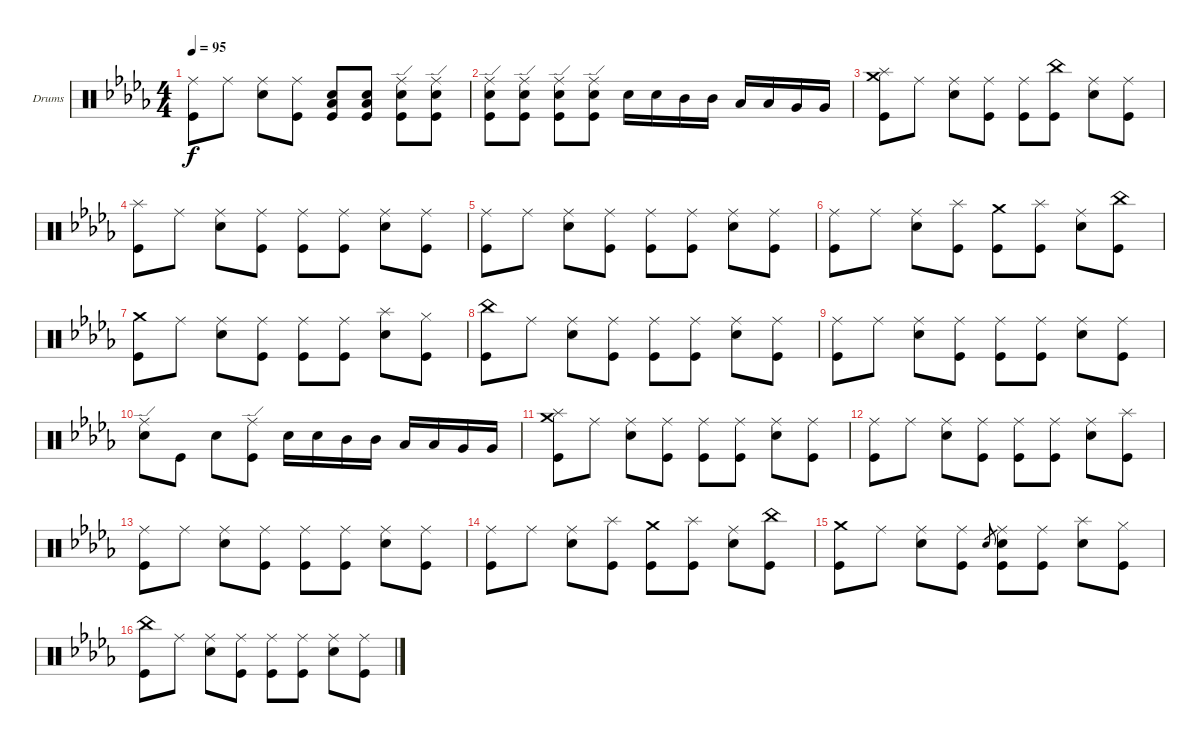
\bracketExtendMode groupsimilarinstruments
\firstSystemTrackNameOrientation horizontal
\otherSystemsTrackNameOrientation horizontal
\track ("Drumkit" "Drums") {instrument percussion}
\staff {score}
\articulation defaults
\ts (4 4)
\tempo 95
\clef neutral
\scale
0.333333
\ks bbminor
("Kick (hit)" "Ride (middle)").8{dy f} "Ride (middle)".8 ("Ride (middle)" "Snare (hit) 2").8 ("Ride (middle)" "Kick (hit)").8 ("Low Tom (hit)" "Kick (hit)" "Snare (hit) 2").8 ("Low Tom (hit)" "Kick (hit)" "Snare (hit) 2").8 ("Kick (hit)" "Ride (edge)" "Snare (hit) 2").8 ("Kick (hit)" "Ride (edge)" "Snare (hit) 2").8 |
\scale
0.333333 ("Kick (hit)" "Snare (hit) 2" "Ride (edge)").8 ("Kick (hit)" "Ride (edge)" "Snare (hit) 2").8 ("Kick (hit)" "Ride (edge)" "Snare (hit) 2").8 ("Kick (hit)" "Ride (edge)" "Snare (hit) 2").8 "Snare (hit) 2".16 "Snare (hit) 2".16 "Mid Tom (hit)".16 "Mid Tom (hit)".16 "Low Tom (hit)".16 "Low Tom (hit)".16 "Very Low Tom (hit)".16 "Very Low Tom (hit)".16 |
("Crash medium (hit)" "Kick (hit)" "Splash (hit)").8 "Ride (middle)".8 ("Ride (middle)" "Snare (hit) 2").8 ("Ride (middle)" "Kick (hit)").8 ("Ride (middle)" "Kick (hit)").8 ("Kick (hit)" "China (hit)").8 ("Ride (middle)" "Snare (hit) 2").8 ("Kick (hit)" "Ride (middle)").8 |
("Kick (hit)" "Splash (hit)").8 "Ride (middle)".8 ("Ride (middle)" "Snare (hit) 2").8 ("Ride (middle)" "Kick (hit)").8 ("Ride (middle)" "Kick (hit)").8 ("Ride (middle)" "Kick (hit)").8 ("Ride (middle)" "Snare (hit) 2").8 ("Kick (hit)" "Ride (middle)").8 |
("Kick (hit)" "Ride (middle)").8 "Ride (middle)".8 ("Ride (middle)" "Snare (hit) 2").8 ("Ride (middle)" "Kick (hit)").8 ("Ride (middle)" "Kick (hit)").8 ("Ride (middle)" "Kick (hit)").8 ("Ride (middle)" "Snare (hit) 2").8 ("Ride (middle)" "Kick (hit)").8 |
("Kick (hit)" "Ride (middle)").8 "Ride (middle)".8 ("Ride (middle)" "Snare (hit) 2").8 ("Kick (hit)" "Splash (hit)").8 ("Kick (hit)" "Crash medium (hit)").8 ("Kick (hit)" "Splash (hit)").8 ("Ride (middle)" "Snare (hit) 2").8 ("Kick (hit)" "China (hit)").8 |
("Crash medium (hit)" "Kick (hit)").8 "Ride (middle)".8 ("Ride (middle)" "Snare (hit) 2").8 ("Ride (middle)" "Kick (hit)").8 ("Ride (middle)" "Kick (hit)").8 ("Ride (middle)" "Kick (hit)").8 ("Snare (hit) 2" "Splash (hit)").8 ("Kick (hit)" "Hi-Hat (closed)").8 |
("Kick (hit)" "China (hit)").8 "Ride (middle)".8 ("Ride (middle)" "Snare (hit) 2").8 ("Ride (middle)" "Kick (hit)").8 ("Ride (middle)" "Kick (hit)").8 ("Ride (middle)" "Kick (hit)").8 ("Ride (middle)" "Snare (hit) 2").8 ("Ride (middle)" "Kick (hit)").8 |
("Kick (hit)" "Ride (middle)").8 "Ride (middle)".8 ("Ride (middle)" "Snare (hit) 2").8 ("Ride (middle)" "Kick (hit)").8 ("Ride (middle)" "Kick (hit)").8 ("Ride (middle)" "Kick (hit)").8 ("Ride (middle)" "Snare (hit) 2").8 ("Ride (middle)" "Kick (hit)").8 |
("Snare (hit) 2" "Ride (edge)").8 "Kick (hit)".8 "Snare (hit) 2".8 ("Kick (hit)" "Ride (edge)").8 "Snare (hit) 2".16 "Snare (hit) 2".16 "Mid Tom (hit)".16 "Mid Tom (hit)".16 "Low Tom (hit)".16 "Low Tom (hit)".16 "Very Low Tom (hit)".16 "Very Low Tom (hit)".16 |
("Crash medium (hit)" "Kick (hit)" "Splash (hit)").8 "Ride (middle)".8 ("Ride (middle)" "Snare (hit) 2").8 ("Ride (middle)" "Kick (hit)").8 ("Ride (middle)" "Kick (hit)").8 ("Ride (middle)" "Kick (hit)").8 ("Ride (middle)" "Snare (hit) 2").8 ("Kick (hit)" "Ride (middle)").8 |
("Kick (hit)" "Ride (middle)").8 "Ride (middle)".8 ("Ride (middle)" "Snare (hit) 2").8 ("Ride (middle)" "Kick (hit)").8 ("Ride (middle)" "Kick (hit)").8 ("Ride (middle)" "Kick (hit)").8 ("Ride (middle)" "Snare (hit) 2").8 ("Kick (hit)" "Splash (hit)").8 |
("Kick (hit)" "Ride (middle)").8 "Ride (middle)".8 ("Ride (middle)" "Snare (hit) 2").8 ("Ride (middle)" "Kick (hit)").8 ("Ride (middle)" "Kick (hit)").8 ("Ride (middle)" "Kick (hit)").8 ("Ride (middle)" "Snare (hit) 2").8 ("Ride (middle)" "Kick (hit)").8 |
("Kick (hit)" "Ride (middle)").8 "Ride (middle)".8 ("Ride (middle)" "Snare (hit) 2").8 ("Kick (hit)" "Splash (hit)").8 ("Kick (hit)" "Crash medium (hit)").8 ("Kick (hit)" "Splash (hit)").8 ("Ride (middle)" "Snare (hit) 2").8 ("Kick (hit)" "China (hit)").8 |
("Crash medium (hit)" "Kick (hit)").8 "Ride (middle)".8 ("Ride (middle)" "Snare (hit) 2").8 ("Ride (middle)" "Kick (hit)").8 "Snare (hit) 2".8{gr} ("Snare (hit) 2" "Ride (middle)" "Kick (hit)").8 ("Ride (middle)" "Kick (hit)").8 ("Snare (hit) 2" "Splash (hit)").8 ("Kick (hit)" "Hi-Hat (closed)").8 |
("Kick (hit)" "China (hit)").8 "Ride (middle)".8 ("Ride (middle)" "Snare (hit) 2").8 ("Ride (middle)" "Kick (hit)").8 ("Ride (middle)" "Kick (hit)").8 ("Ride (middle)" "Kick (hit)").8 ("Ride (middle)" "Snare (hit) 2").8 ("Ride (middle)" "Kick (hit)").8
